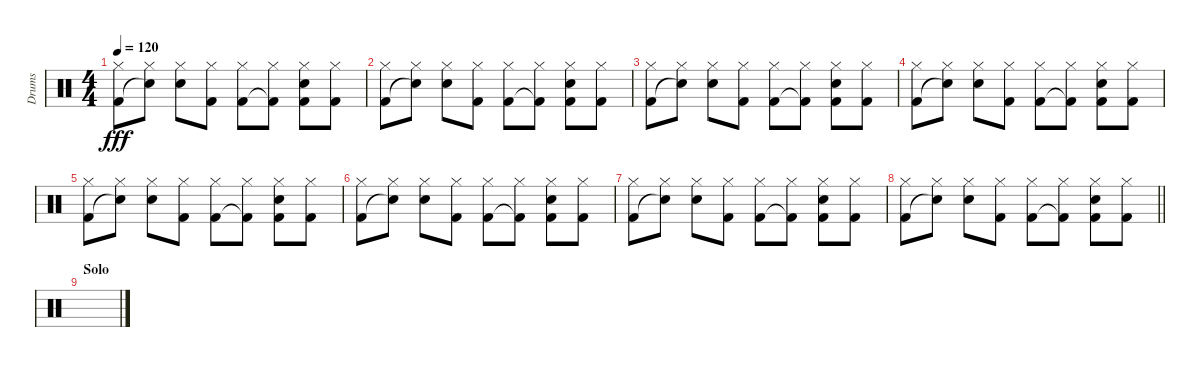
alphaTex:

\track ("Drums" "Drums") {instrument percussion}
\staff {score}
\articulation defaults
\ts (4 4)
\tempo 120
\clef neutral
\ks c
("Hi-Hat (closed)" "Kick (hit) 2").8{dy fff} ("Hi-Hat (closed)" "Snare (hit)"{t}).8 ("Hi-Hat (closed)" "Snare (hit) 2").8 ("Hi-Hat (closed)" "Kick (hit) 2").8 ("Hi-Hat (closed)" "Kick (hit) 2").8 ("Hi-Hat (closed)" "Kick (hit) 2"{t}).8 ("Hi-Hat (closed)" "Snare (hit) 2" "Kick (hit) 2").8 ("Hi-Hat (closed)" "Kick (hit) 2").8 |
("Hi-Hat (closed)" "Kick (hit) 2").8 ("Hi-Hat (closed)" "Snare (hit)"{t}).8 ("Hi-Hat (closed)" "Snare (hit) 2").8 ("Hi-Hat (closed)" "Kick (hit) 2").8 ("Hi-Hat (closed)" "Kick (hit) 2").8 ("Hi-Hat (closed)" "Kick (hit) 2"{t}).8 ("Hi-Hat (closed)" "Snare (hit) 2" "Kick (hit) 2").8 ("Hi-Hat (closed)" "Kick (hit) 2").8 |
("Hi-Hat (closed)" "Kick (hit) 2").8 ("Hi-Hat (closed)" "Snare (hit)"{t}).8 ("Hi-Hat (closed)" "Snare (hit) 2").8 ("Hi-Hat (closed)" "Kick (hit) 2").8 ("Hi-Hat (closed)" "Kick (hit) 2").8 ("Hi-Hat (closed)" "Kick (hit) 2"{t}).8 ("Hi-Hat (closed)" "Snare (hit) 2" "Kick (hit) 2").8 ("Hi-Hat (closed)" "Kick (hit) 2").8 |
("Hi-Hat (closed)" "Kick (hit) 2").8 ("Hi-Hat (closed)" "Snare (hit)"{t}).8 ("Hi-Hat (closed)" "Snare (hit) 2").8 ("Hi-Hat (closed)" "Kick (hit) 2").8 ("Hi-Hat (closed)" "Kick (hit) 2").8 ("Hi-Hat (closed)" "Kick (hit) 2"{t}).8 ("Hi-Hat (closed)" "Snare (hit) 2" "Kick (hit) 2").8 ("Hi-Hat (closed)" "Kick (hit) 2").8 |
("Hi-Hat (closed)" "Kick (hit) 2").8 ("Hi-Hat (closed)" "Snare (hit)"{t}).8 ("Hi-Hat (closed)" "Snare (hit) 2").8 ("Hi-Hat (closed)" "Kick (hit) 2").8 ("Hi-Hat (closed)" "Kick (hit) 2").8 ("Hi-Hat (closed)" "Kick (hit) 2"{t}).8 ("Hi-Hat (closed)" "Snare (hit) 2" "Kick (hit) 2").8 ("Hi-Hat (closed)" "Kick (hit) 2").8 |
("Hi-Hat (closed)" "Kick (hit) 2").8 ("Hi-Hat (closed)" "Snare (hit)"{t}).8 ("Hi-Hat (closed)" "Snare (hit) 2").8 ("Hi-Hat (closed)" "Kick (hit) 2").8 ("Hi-Hat (closed)" "Kick (hit) 2").8 ("Hi-Hat (closed)" "Kick (hit) 2"{t}).8 ("Hi-Hat (closed)" "Snare (hit) 2" "Kick (hit) 2").8 ("Hi-Hat (closed)" "Kick (hit) 2").8 |
("Hi-Hat (closed)" "Kick (hit) 2").8 ("Hi-Hat (closed)" "Snare (hit)"{t}).8 ("Hi-Hat (closed)" "Snare (hit) 2").8 ("Hi-Hat (closed)" "Kick (hit) 2").8 ("Hi-Hat (closed)" "Kick (hit) 2").8 ("Hi-Hat (closed)" "Kick (hit) 2"{t}).8 ("Hi-Hat (closed)" "Snare (hit) 2" "Kick (hit) 2").8 ("Hi-Hat (closed)" "Kick (hit) 2").8 |
\barLineRight lightlight
("Hi-Hat (closed)" "Kick (hit) 2").8 ("Hi-Hat (closed)" "Snare (hit)"{t}).8 ("Hi-Hat (closed)" "Snare (hit) 2").8 ("Hi-Hat (closed)" "Kick (hit) 2").8 ("Hi-Hat (closed)" "Kick (hit) 2").8 ("Hi-Hat (closed)" "Kick (hit) 2"{t}).8 ("Hi-Hat (closed)" "Snare (hit) 2" "Kick (hit) 2").8 ("Hi-Hat (closed)" "Kick (hit) 2").8 |
\section ("" "Solo")
